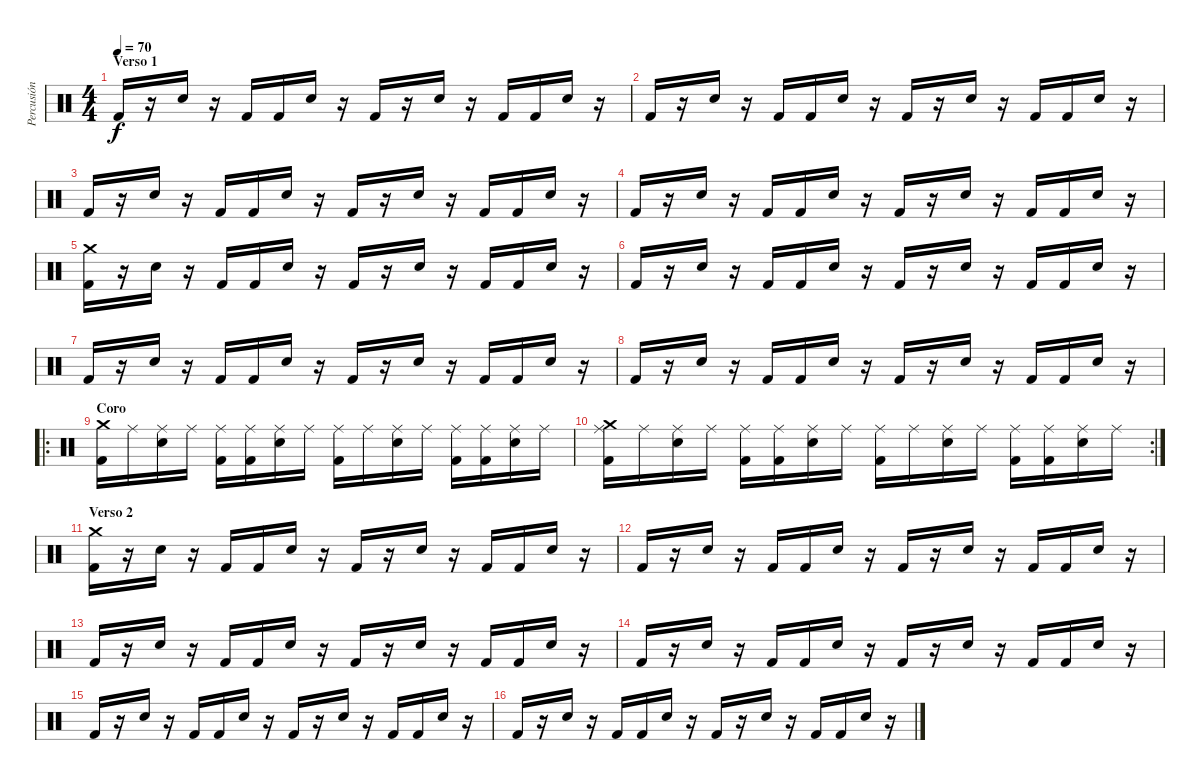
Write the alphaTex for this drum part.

\track ("Percusión" "Percusión") {instrument percussion}
\staff {score}
\articulation defaults
\ts (4 4)
\section ("" "Verso 1")
\tempo 70
\clef neutral
\ks c "Kick (hit) 2".16{dy f}
r.16 "Snare (hit) 2".16 r.16 "Kick (hit) 2".16 "Kick (hit) 2".16 "Snare (hit) 2".16 r.16 "Kick (hit) 2".16 r.16 "Snare (hit) 2".16 r.16 "Kick (hit) 2".16 "Kick (hit) 2".16 "Snare (hit) 2".16 r.16 |
"Kick (hit) 2".16 r.16 "Snare (hit) 2".16 r.16 "Kick (hit) 2".16 "Kick (hit) 2".16 "Snare (hit) 2".16 r.16 "Kick (hit) 2".16 r.16 "Snare (hit) 2".16 r.16 "Kick (hit) 2".16 "Kick (hit) 2".16 "Snare (hit) 2".16 r.16 |
"Kick (hit) 2".16 r.16 "Snare (hit) 2".16 r.16 "Kick (hit) 2".16 "Kick (hit) 2".16 "Snare (hit) 2".16 r.16 "Kick (hit) 2".16 r.16 "Snare (hit) 2".16 r.16 "Kick (hit) 2".16 "Kick (hit) 2".16 "Snare (hit) 2".16 r.16 |
"Kick (hit) 2".16 r.16 "Snare (hit) 2".16 r.16 "Kick (hit) 2".16 "Kick (hit) 2".16 "Snare (hit) 2".16 r.16 "Kick (hit) 2".16 r.16 "Snare (hit) 2".16 r.16 "Kick (hit) 2".16 "Kick (hit) 2".16 "Snare (hit) 2".16 r.16 |
("Kick (hit) 2" "Crash medium (hit)").16 r.16 "Snare (hit) 2".16 r.16 "Kick (hit) 2".16 "Kick (hit) 2".16 "Snare (hit) 2".16 r.16 "Kick (hit) 2".16 r.16 "Snare (hit) 2".16 r.16 "Kick (hit) 2".16 "Kick (hit) 2".16 "Snare (hit) 2".16 r.16 |
"Kick (hit) 2".16 r.16 "Snare (hit) 2".16 r.16 "Kick (hit) 2".16 "Kick (hit) 2".16 "Snare (hit) 2".16 r.16 "Kick (hit) 2".16 r.16 "Snare (hit) 2".16 r.16 "Kick (hit) 2".16 "Kick (hit) 2".16 "Snare (hit) 2".16 r.16 |
"Kick (hit) 2".16 r.16 "Snare (hit) 2".16 r.16 "Kick (hit) 2".16 "Kick (hit) 2".16 "Snare (hit) 2".16 r.16 "Kick (hit) 2".16 r.16 "Snare (hit) 2".16 r.16 "Kick (hit) 2".16 "Kick (hit) 2".16 "Snare (hit) 2".16 r.16 |
"Kick (hit) 2".16 r.16 "Snare (hit) 2".16 r.16 "Kick (hit) 2".16 "Kick (hit) 2".16 "Snare (hit) 2".16 r.16 "Kick (hit) 2".16 r.16 "Snare (hit) 2".16 r.16 "Kick (hit) 2".16 "Kick (hit) 2".16 "Snare (hit) 2".16 r.16 |
\ro
\section ("" "Coro")
("Kick (hit) 2" "Crash medium (hit)").16 "Ride (middle)".16 ("Snare (hit) 2" "Ride (middle)").16 "Ride (middle)".16 ("Kick (hit) 2" "Ride (middle)").16 ("Kick (hit) 2" "Ride (middle)").16 ("Snare (hit) 2" "Ride (middle)").16 "Ride (middle)".16 ("Kick (hit) 2" "Ride (middle)").16 "Ride (middle)".16 ("Snare (hit) 2" "Ride (middle)").16 "Ride (middle)".16 ("Kick (hit) 2" "Ride (middle)").16 ("Kick (hit) 2" "Ride (middle)").16 ("Snare (hit) 2" "Ride (middle)").16 "Ride (middle)".16 |
\rc 2
("Kick (hit) 2" "Crash medium (hit)" "Ride (middle)").16 "Ride (middle)".16 ("Snare (hit) 2" "Ride (middle)").16 "Ride (middle)".16 ("Kick (hit) 2" "Ride (middle)").16 ("Kick (hit) 2" "Ride (middle)").16 ("Snare (hit) 2" "Ride (middle)").16 "Ride (middle)".16 ("Kick (hit) 2" "Ride (middle)").16 "Ride (middle)".16 ("Snare (hit) 2" "Ride (middle)").16 "Ride (middle)".16 ("Kick (hit) 2" "Ride (middle)").16 ("Kick (hit) 2" "Ride (middle)").16 ("Snare (hit) 2" "Ride (middle)").16 "Ride (middle)".16 |
\section ("" "Verso 2")
("Kick (hit) 2" "Crash medium (hit)").16 r.16 "Snare (hit) 2".16 r.16 "Kick (hit) 2".16 "Kick (hit) 2".16 "Snare (hit) 2".16 r.16 "Kick (hit) 2".16 r.16 "Snare (hit) 2".16 r.16 "Kick (hit) 2".16 "Kick (hit) 2".16 "Snare (hit) 2".16 r.16 |
"Kick (hit) 2".16 r.16 "Snare (hit) 2".16 r.16 "Kick (hit) 2".16 "Kick (hit) 2".16 "Snare (hit) 2".16 r.16 "Kick (hit) 2".16 r.16 "Snare (hit) 2".16 r.16 "Kick (hit) 2".16 "Kick (hit) 2".16 "Snare (hit) 2".16 r.16 |
"Kick (hit) 2".16 r.16 "Snare (hit) 2".16 r.16 "Kick (hit) 2".16 "Kick (hit) 2".16 "Snare (hit) 2".16 r.16 "Kick (hit) 2".16 r.16 "Snare (hit) 2".16 r.16 "Kick (hit) 2".16 "Kick (hit) 2".16 "Snare (hit) 2".16 r.16 |
"Kick (hit) 2".16 r.16 "Snare (hit) 2".16 r.16 "Kick (hit) 2".16 "Kick (hit) 2".16 "Snare (hit) 2".16 r.16 "Kick (hit) 2".16 r.16 "Snare (hit) 2".16 r.16 "Kick (hit) 2".16 "Kick (hit) 2".16 "Snare (hit) 2".16 r.16 |
"Kick (hit) 2".16 r.16 "Snare (hit) 2".16 r.16 "Kick (hit) 2".16 "Kick (hit) 2".16 "Snare (hit) 2".16 r.16 "Kick (hit) 2".16 r.16 "Snare (hit) 2".16 r.16 "Kick (hit) 2".16 "Kick (hit) 2".16 "Snare (hit) 2".16 r.16 |
"Kick (hit) 2".16 r.16 "Snare (hit) 2".16 r.16 "Kick (hit) 2".16 "Kick (hit) 2".16 "Snare (hit) 2".16 r.16 "Kick (hit) 2".16 r.16 "Snare (hit) 2".16 r.16 "Kick (hit) 2".16 "Kick (hit) 2".16 "Snare (hit) 2".16 r.16
